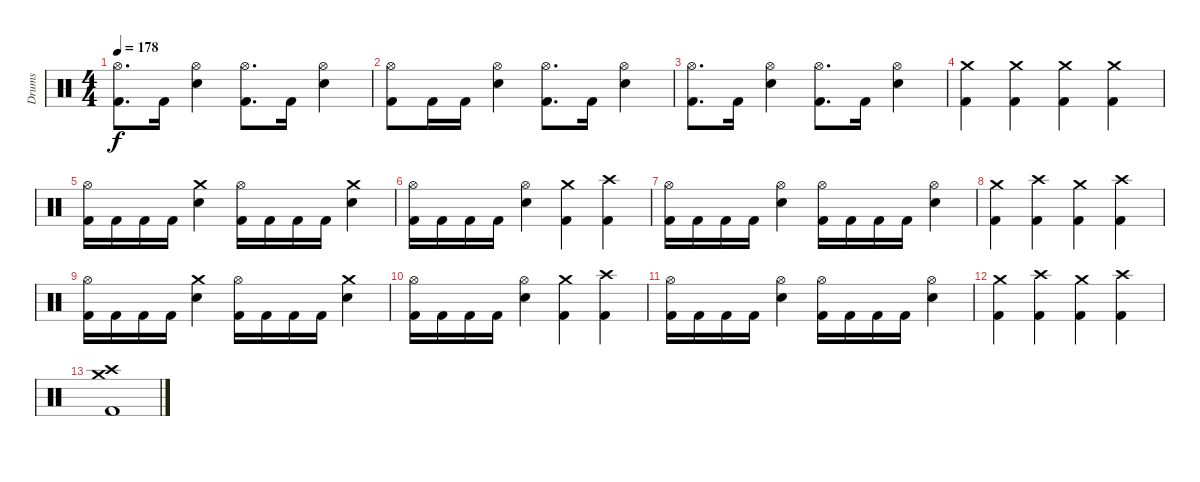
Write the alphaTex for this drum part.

\track ("Drums" "Drums") {instrument percussion}
\staff {score}
\articulation defaults
\ts (4 4)
\tempo 178
\clef neutral
\ks c
("Hi-Hat (open)" "Kick (hit) 2").8{d dy f} "Kick (hit) 2".16 ("Hi-Hat (open)" "Electric Snare (hit)").4 ("Hi-Hat (open)" "Kick (hit) 2").8{d} "Kick (hit) 2".16 ("Hi-Hat (open)" "Electric Snare (hit)").4 |
("Hi-Hat (open)" "Kick (hit) 2").8 "Kick (hit) 2".16 "Kick (hit) 2".16 ("Hi-Hat (open)" "Electric Snare (hit)").4 ("Hi-Hat (open)" "Kick (hit) 2").8{d} "Kick (hit) 2".16 ("Hi-Hat (open)" "Electric Snare (hit)").4 |
("Hi-Hat (open)" "Kick (hit) 2").8{d} "Kick (hit) 2".16 ("Hi-Hat (open)" "Electric Snare (hit)").4 ("Hi-Hat (open)" "Kick (hit) 2").8{d} "Kick (hit) 2".16 ("Hi-Hat (open)" "Electric Snare (hit)").4 |
("Crash medium (hit)" "Kick (hit) 2").4 ("Crash medium (hit)" "Kick (hit) 2").4 ("Crash medium (hit)" "Kick (hit) 2").4 ("Crash medium (hit)" "Kick (hit) 2").4 |
("Hi-Hat (open)" "Kick (hit) 2").16 "Kick (hit) 2".16 "Kick (hit) 2".16 "Kick (hit) 2".16 ("Crash medium (hit)" "Electric Snare (hit)").4 ("Hi-Hat (open)" "Kick (hit) 2").16 "Kick (hit) 2".16 "Kick (hit) 2".16 "Kick (hit) 2".16 ("Crash medium (hit)" "Electric Snare (hit)").4 |
("Hi-Hat (open)" "Kick (hit) 2").16 "Kick (hit) 2".16 "Kick (hit) 2".16 "Kick (hit) 2".16 ("Hi-Hat (open)" "Electric Snare (hit)").4 ("Crash medium (hit)" "Kick (hit) 2").4 ("Crash high (hit)" "Kick (hit) 2").4 |
("Hi-Hat (open)" "Kick (hit) 2").16 "Kick (hit) 2".16 "Kick (hit) 2".16 "Kick (hit) 2".16 ("Hi-Hat (open)" "Electric Snare (hit)").4 ("Hi-Hat (open)" "Kick (hit) 2").16 "Kick (hit) 2".16 "Kick (hit) 2".16 "Kick (hit) 2".16 ("Hi-Hat (open)" "Electric Snare (hit)").4 |
("Crash medium (hit)" "Kick (hit) 2").4 ("Crash high (hit)" "Kick (hit) 2").4 ("Crash medium (hit)" "Kick (hit) 2").4 ("Crash high (hit)" "Kick (hit) 2").4 |
("Hi-Hat (open)" "Kick (hit) 2").16 "Kick (hit) 2".16 "Kick (hit) 2".16 "Kick (hit) 2".16 ("Crash medium (hit)" "Electric Snare (hit)").4 ("Hi-Hat (open)" "Kick (hit) 2").16 "Kick (hit) 2".16 "Kick (hit) 2".16 "Kick (hit) 2".16 ("Crash medium (hit)" "Electric Snare (hit)").4 |
("Hi-Hat (open)" "Kick (hit) 2").16 "Kick (hit) 2".16 "Kick (hit) 2".16 "Kick (hit) 2".16 ("Hi-Hat (open)" "Electric Snare (hit)").4 ("Crash medium (hit)" "Kick (hit) 2").4 ("Crash high (hit)" "Kick (hit) 2").4 |
("Hi-Hat (open)" "Kick (hit) 2").16 "Kick (hit) 2".16 "Kick (hit) 2".16 "Kick (hit) 2".16 ("Hi-Hat (open)" "Electric Snare (hit)").4 ("Hi-Hat (open)" "Kick (hit) 2").16 "Kick (hit) 2".16 "Kick (hit) 2".16 "Kick (hit) 2".16 ("Hi-Hat (open)" "Electric Snare (hit)").4 |
("Crash medium (hit)" "Kick (hit) 2").4 ("Crash high (hit)" "Kick (hit) 2").4 ("Crash medium (hit)" "Kick (hit) 2").4 ("Crash high (hit)" "Kick (hit) 2").4 |
("Crash medium (hit)" "Crash high (hit)" "Kick (hit) 2").1
